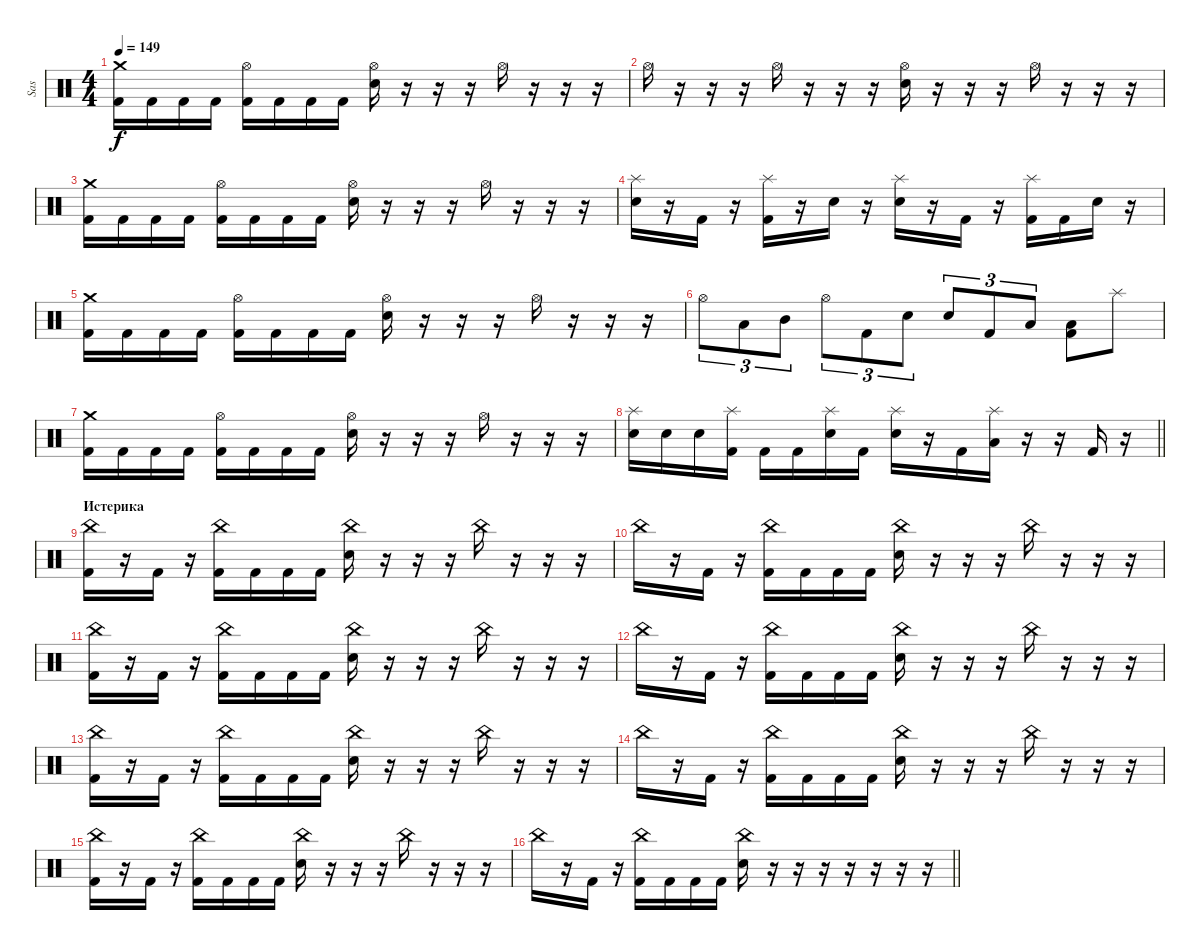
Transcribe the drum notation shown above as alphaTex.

\track ("Sas" "Sas") {instrument percussion}
\staff {score}
\articulation defaults
\ts (4 4)
\tempo 149
\clef neutral
\ks c
("Crash medium (hit)" "Kick (hit) 2").16{dy f} "Kick (hit) 2".16 "Kick (hit) 2".16 "Kick (hit) 2".16 ("Hi-Hat (open)" "Kick (hit) 2").16 "Kick (hit) 2".16 "Kick (hit) 2".16 "Kick (hit) 2".16 ("Hi-Hat (open)" "Snare (hit) 2").16 r.16 r.16 r.16 "Hi-Hat (open)".16 r.16 r.16 r.16 |
"Hi-Hat (open)".16 r.16 r.16 r.16 "Hi-Hat (open)".16 r.16 r.16 r.16 ("Hi-Hat (open)" "Snare (hit) 2").16 r.16 r.16 r.16 "Hi-Hat (open)".16 r.16 r.16 r.16 |
("Crash medium (hit)" "Kick (hit) 2").16 "Kick (hit) 2".16 "Kick (hit) 2".16 "Kick (hit) 2".16 ("Hi-Hat (open)" "Kick (hit) 2").16 "Kick (hit) 2".16 "Kick (hit) 2".16 "Kick (hit) 2".16 ("Hi-Hat (open)" "Snare (hit) 2").16 r.16 r.16 r.16 "Hi-Hat (open)".16 r.16 r.16 r.16 |
("Splash (hit)" "Snare (hit) 2").16 r.16 "Kick (hit) 2".16 r.16 ("Splash (hit)" "Kick (hit) 2").16 r.16 "Snare (hit) 2".16 r.16 ("Splash (hit)" "Snare (hit) 2").16 r.16 "Kick (hit) 2".16 r.16 ("Splash (hit)" "Kick (hit) 2").16 "Kick (hit) 2".16 "Snare (hit) 2".16 r.16 |
("Crash medium (hit)" "Kick (hit) 2").16 "Kick (hit) 2".16 "Kick (hit) 2".16 "Kick (hit) 2".16 ("Hi-Hat (open)" "Kick (hit) 2").16 "Kick (hit) 2".16 "Kick (hit) 2".16 "Kick (hit) 2".16 ("Hi-Hat (open)" "Snare (hit) 2").16 r.16 r.16 r.16 "Hi-Hat (open)".16 r.16 r.16 r.16 |
"Hi-Hat (open)".8{tu (3 2)} "Low Tom (hit)".8{tu (3 2)} "Mid Tom (hit)".8{tu (3 2)} "Hi-Hat (open)".8{tu (3 2)} "Kick (hit) 2".8{tu (3 2)} "Snare (hit) 2".8{tu (3 2)} "Snare (hit) 2".8{tu (3 2)} "Kick (hit) 2".8{tu (3 2)} "Low Tom (hit)".8{tu (3 2)} ("Low Tom (hit)" "Kick (hit) 2").8 "Splash (hit)".8 |
("Crash medium (hit)" "Kick (hit) 2").16 "Kick (hit) 2".16 "Kick (hit) 2".16 "Kick (hit) 2".16 ("Hi-Hat (open)" "Kick (hit) 2").16 "Kick (hit) 2".16 "Kick (hit) 2".16 "Kick (hit) 2".16 ("Hi-Hat (open)" "Snare (hit) 2").16 r.16 r.16 r.16 "Hi-Hat (open)".16 r.16 r.16 r.16 |
\barLineRight lightlight
("Splash (hit)" "Snare (hit) 2").16 "Snare (hit) 2".16 "Snare (hit) 2".16 ("Splash (hit)" "Kick (hit) 2").16 "Kick (hit) 2".16 "Kick (hit) 2".16 ("Splash (hit)" "Snare (hit) 2").16 "Kick (hit) 2".16 ("Splash (hit)" "Snare (hit) 2").16 r.16 "Kick (hit) 2".16 ("Splash (hit)" "Low Tom (hit)").16 r.16 r.16 "Kick (hit) 2".16 r.16 |
\section ("" "Истерика")
("China (hit)" "Kick (hit) 2").16 r.16 "Kick (hit) 2".16 r.16 ("China (hit)" "Kick (hit) 2").16 "Kick (hit) 2".16 "Kick (hit) 2".16 "Kick (hit) 2".16 ("China (hit)" "Snare (hit) 2").16 r.16 r.16 r.16 "China (hit)".16 r.16 r.16 r.16 |
"China (hit)".16 r.16 "Kick (hit) 2".16 r.16 ("China (hit)" "Kick (hit) 2").16 "Kick (hit) 2".16 "Kick (hit) 2".16 "Kick (hit) 2".16 ("China (hit)" "Snare (hit) 2").16 r.16 r.16 r.16 "China (hit)".16 r.16 r.16 r.16 |
("China (hit)" "Kick (hit) 2").16 r.16 "Kick (hit) 2".16 r.16 ("China (hit)" "Kick (hit) 2").16 "Kick (hit) 2".16 "Kick (hit) 2".16 "Kick (hit) 2".16 ("China (hit)" "Snare (hit) 2").16 r.16 r.16 r.16 "China (hit)".16 r.16 r.16 r.16 |
"China (hit)".16 r.16 "Kick (hit) 2".16 r.16 ("China (hit)" "Kick (hit) 2").16 "Kick (hit) 2".16 "Kick (hit) 2".16 "Kick (hit) 2".16 ("China (hit)" "Snare (hit) 2").16 r.16 r.16 r.16 "China (hit)".16 r.16 r.16 r.16 |
("China (hit)" "Kick (hit) 2").16 r.16 "Kick (hit) 2".16 r.16 ("China (hit)" "Kick (hit) 2").16 "Kick (hit) 2".16 "Kick (hit) 2".16 "Kick (hit) 2".16 ("China (hit)" "Snare (hit) 2").16 r.16 r.16 r.16 "China (hit)".16 r.16 r.16 r.16 |
"China (hit)".16 r.16 "Kick (hit) 2".16 r.16 ("China (hit)" "Kick (hit) 2").16 "Kick (hit) 2".16 "Kick (hit) 2".16 "Kick (hit) 2".16 ("China (hit)" "Snare (hit) 2").16 r.16 r.16 r.16 "China (hit)".16 r.16 r.16 r.16 |
("China (hit)" "Kick (hit) 2").16 r.16 "Kick (hit) 2".16 r.16 ("China (hit)" "Kick (hit) 2").16 "Kick (hit) 2".16 "Kick (hit) 2".16 "Kick (hit) 2".16 ("China (hit)" "Snare (hit) 2").16 r.16 r.16 r.16 "China (hit)".16 r.16 r.16 r.16 |
\barLineRight lightlight "China (hit)".16
r.16 "Kick (hit) 2".16 r.16 ("China (hit)" "Kick (hit) 2").16 "Kick (hit) 2".16 "Kick (hit) 2".16 "Kick (hit) 2".16 ("China (hit)" "Snare (hit) 2").16 r.16 r.16 r.16 r.16 r.16 r.16 r.16
